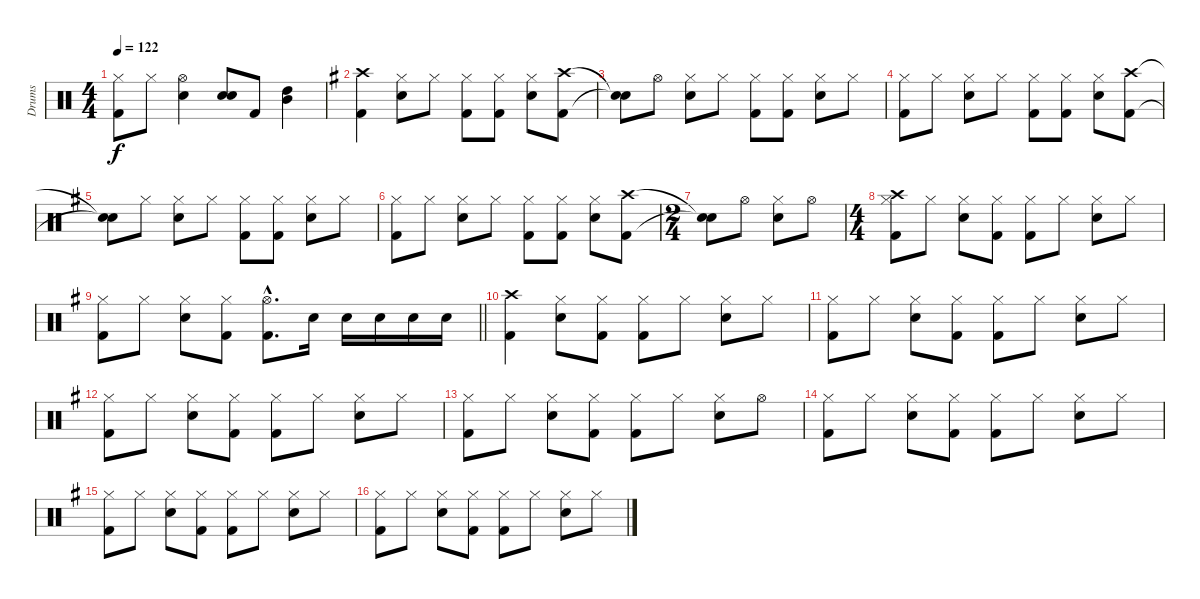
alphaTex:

\track ("Drums" "Drums") {instrument percussion}
\staff {score}
\articulation defaults
\ts (4 4)
\tempo 122
\clef neutral
\ks c
("Hi-Hat (closed)" "Kick (hit) 2").8{dy f} "Hi-Hat (closed)".8 ("Hi-Hat (open)" "Electric Snare (hit)").4 ("Snare (hit) 2" "Electric Snare (hit)").8 "Kick (hit) 2".8 ("High Tom (hit)" "Mid Tom (hit)").4 |
\ks g
("Crash high (hit)" "Kick (hit) 2").4 ("Hi-Hat (closed)" "Electric Snare (hit)").8 "Hi-Hat (closed)".8 ("Hi-Hat (closed)" "Kick (hit) 2").8 ("Hi-Hat (closed)" "Kick (hit) 2").8 ("Hi-Hat (closed)" "Electric Snare (hit)").8 ("Crash high (hit)" "Kick (hit) 2").8 |
("Snare (hit)"{t} "Snare (hit)"{t}).8 "Hi-Hat (open)".8 ("Hi-Hat (closed)" "Electric Snare (hit)").8 "Hi-Hat (closed)".8 ("Hi-Hat (closed)" "Kick (hit) 2").8 ("Hi-Hat (closed)" "Kick (hit) 2").8 ("Hi-Hat (closed)" "Electric Snare (hit)").8 "Hi-Hat (closed)".8 |
("Hi-Hat (closed)" "Kick (hit) 2").8 "Hi-Hat (closed)".8 ("Hi-Hat (closed)" "Electric Snare (hit)").8 "Hi-Hat (closed)".8 ("Hi-Hat (closed)" "Kick (hit) 2").8 ("Hi-Hat (closed)" "Kick (hit) 2").8 ("Hi-Hat (closed)" "Electric Snare (hit)").8 ("Crash high (hit)" "Kick (hit) 2").8 |
("Snare (hit)"{t} "Snare (hit)"{t}).8 "Hi-Hat (closed)".8 ("Hi-Hat (closed)" "Electric Snare (hit)").8 "Hi-Hat (closed)".8 ("Hi-Hat (closed)" "Kick (hit) 2").8 ("Hi-Hat (closed)" "Kick (hit) 2").8 ("Hi-Hat (closed)" "Electric Snare (hit)").8 "Hi-Hat (closed)".8 |
("Hi-Hat (closed)" "Kick (hit) 2").8 "Hi-Hat (closed)".8 ("Hi-Hat (closed)" "Electric Snare (hit)").8 "Hi-Hat (closed)".8 ("Hi-Hat (closed)" "Kick (hit) 2").8 ("Hi-Hat (closed)" "Kick (hit) 2").8 ("Hi-Hat (closed)" "Electric Snare (hit)").8 ("Crash high (hit)" "Kick (hit) 2").8 |
\ts (2 4)
("Snare (hit)"{t} "Snare (hit)"{t}).8 "Hi-Hat (open)".8 ("Hi-Hat (closed)" "Electric Snare (hit)").8 "Hi-Hat (open)".8 |
\ts (4 4)
("Hi-Hat (closed)" "Crash high (hit)" "Kick (hit) 2").8 "Hi-Hat (closed)".8 ("Hi-Hat (closed)" "Electric Snare (hit)").8 ("Hi-Hat (closed)" "Kick (hit) 2").8 ("Hi-Hat (closed)" "Kick (hit) 2").8 "Hi-Hat (closed)".8 ("Hi-Hat (closed)" "Electric Snare (hit)").8 "Hi-Hat (closed)".8 |
\barLineRight lightlight
("Hi-Hat (closed)" "Kick (hit) 2").8 "Hi-Hat (closed)".8 ("Hi-Hat (closed)" "Electric Snare (hit)").8 ("Hi-Hat (closed)" "Kick (hit) 2").8 ("Hi-Hat (open)"{hac} "Kick (hit) 2"{hac}).8{d} "Electric Snare (hit)".16 "Electric Snare (hit)".16 "Electric Snare (hit)".16 "Electric Snare (hit)".16 "Electric Snare (hit)".16 |
("Crash high (hit)" "Kick (hit) 2").4 ("Hi-Hat (closed)" "Electric Snare (hit)").8 ("Hi-Hat (closed)" "Kick (hit) 2").8 ("Hi-Hat (closed)" "Kick (hit) 2").8 "Hi-Hat (closed)".8 ("Hi-Hat (closed)" "Electric Snare (hit)").8 "Hi-Hat (closed)".8 |
("Hi-Hat (closed)" "Kick (hit) 2").8 "Hi-Hat (closed)".8 ("Hi-Hat (closed)" "Electric Snare (hit)").8 ("Hi-Hat (closed)" "Kick (hit) 2").8 ("Hi-Hat (closed)" "Kick (hit) 2").8 "Hi-Hat (closed)".8 ("Hi-Hat (closed)" "Electric Snare (hit)").8 "Hi-Hat (closed)".8 |
("Hi-Hat (closed)" "Kick (hit) 2").8 "Hi-Hat (closed)".8 ("Hi-Hat (closed)" "Electric Snare (hit)").8 ("Hi-Hat (closed)" "Kick (hit) 2").8 ("Hi-Hat (closed)" "Kick (hit) 2").8 "Hi-Hat (closed)".8 ("Hi-Hat (closed)" "Electric Snare (hit)").8 "Hi-Hat (closed)".8 |
("Hi-Hat (closed)" "Kick (hit) 2").8 "Hi-Hat (closed)".8 ("Hi-Hat (closed)" "Electric Snare (hit)").8 ("Hi-Hat (closed)" "Kick (hit) 2").8 ("Hi-Hat (closed)" "Kick (hit) 2").8 "Hi-Hat (closed)".8 ("Hi-Hat (closed)" "Electric Snare (hit)").8 "Hi-Hat (open)".8 |
("Hi-Hat (closed)" "Kick (hit) 2").8 "Hi-Hat (closed)".8 ("Hi-Hat (closed)" "Electric Snare (hit)").8 ("Hi-Hat (closed)" "Kick (hit) 2").8 ("Hi-Hat (closed)" "Kick (hit) 2").8 "Hi-Hat (closed)".8 ("Hi-Hat (closed)" "Electric Snare (hit)").8 "Hi-Hat (closed)".8 |
("Hi-Hat (closed)" "Kick (hit) 2").8 "Hi-Hat (closed)".8 ("Hi-Hat (closed)" "Electric Snare (hit)").8 ("Hi-Hat (closed)" "Kick (hit) 2").8 ("Hi-Hat (closed)" "Kick (hit) 2").8 "Hi-Hat (closed)".8 ("Hi-Hat (closed)" "Electric Snare (hit)").8 "Hi-Hat (closed)".8 |
("Hi-Hat (closed)" "Kick (hit) 2").8 "Hi-Hat (closed)".8 ("Hi-Hat (closed)" "Electric Snare (hit)").8 ("Hi-Hat (closed)" "Kick (hit) 2").8 ("Hi-Hat (closed)" "Kick (hit) 2").8 "Hi-Hat (closed)".8 ("Hi-Hat (closed)" "Electric Snare (hit)").8 "Hi-Hat (closed)".8
